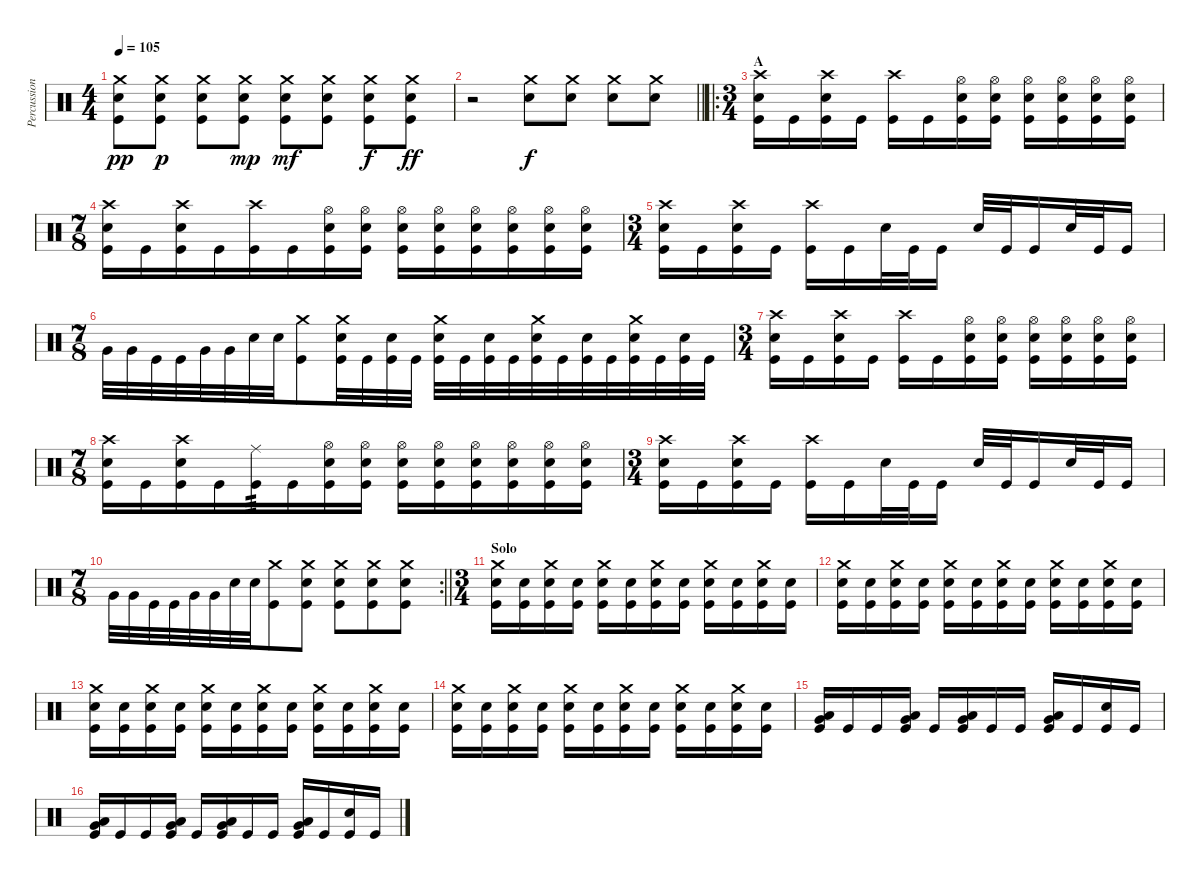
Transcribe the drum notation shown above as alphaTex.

\track ("Percussion" "Percussion") {instrument percussion}
\staff {score}
\articulation defaults
\ts (4 4)
\tempo 105
\clef neutral
\ks c
("Kick (hit)" "Snare (hit) 2" "Crash medium (hit)").8{dy pp} ("Kick (hit)" "Snare (hit) 2" "Crash medium (hit)").8{dy p} ("Kick (hit)" "Snare (hit) 2" "Crash medium (hit)").8 ("Kick (hit)" "Snare (hit) 2" "Crash medium (hit)").8{dy mp} ("Kick (hit)" "Snare (hit) 2" "Crash medium (hit)").8{dy mf} ("Kick (hit)" "Snare (hit) 2" "Crash medium (hit)").8 ("Kick (hit)" "Snare (hit) 2" "Crash medium (hit)").8{dy f} ("Kick (hit)" "Snare (hit) 2" "Crash medium (hit)").8{dy ff} |
\barLineRight lightlight
r.2 ("Snare (hit) 2" "Crash medium (hit)").8{dy f} ("Snare (hit) 2" "Crash medium (hit)").8 ("Snare (hit) 2" "Crash medium (hit)").8 ("Snare (hit) 2" "Crash medium (hit)").8 |
\ro
\ts (3 4)
\section ("" "A")
("Kick (hit)" "Snare (hit) 2" "Crash high (hit)").16 "Kick (hit)".16 ("Kick (hit)" "Snare (hit) 2" "Crash high (hit)").16 "Kick (hit)".16 ("Kick (hit)" "Crash high (hit)").16 "Kick (hit)".16 ("Kick (hit)" "Hi-Hat (open)" "Snare (hit) 2").16 ("Kick (hit)" "Hi-Hat (open)" "Snare (hit) 2").16 ("Kick (hit)" "Hi-Hat (open)" "Snare (hit) 2").16 ("Kick (hit)" "Hi-Hat (open)" "Snare (hit) 2").16 ("Kick (hit)" "Hi-Hat (open)" "Snare (hit) 2").16 ("Kick (hit)" "Hi-Hat (open)" "Snare (hit) 2").16 |
\ts (7 8)
("Kick (hit)" "Snare (hit) 2" "Crash high (hit)").16 "Kick (hit)".16 ("Kick (hit)" "Snare (hit) 2" "Crash high (hit)").16 "Kick (hit)".16 ("Kick (hit)" "Crash high (hit)").16 "Kick (hit)".16 ("Kick (hit)" "Hi-Hat (open)" "Snare (hit) 2").16 ("Kick (hit)" "Hi-Hat (open)" "Snare (hit) 2").16 ("Kick (hit)" "Hi-Hat (open)" "Snare (hit) 2").16 ("Kick (hit)" "Hi-Hat (open)" "Snare (hit) 2").16 ("Kick (hit)" "Hi-Hat (open)" "Snare (hit) 2").16 ("Kick (hit)" "Hi-Hat (open)" "Snare (hit) 2").16 ("Kick (hit)" "Hi-Hat (open)" "Snare (hit) 2").16 ("Kick (hit)" "Hi-Hat (open)" "Snare (hit) 2").16 |
\ts (3 4)
("Kick (hit)" "Snare (hit) 2" "Crash high (hit)").16 "Kick (hit)".16 ("Kick (hit)" "Snare (hit) 2" "Crash high (hit)").16 "Kick (hit)".16 ("Kick (hit)" "Crash high (hit)").16 "Kick (hit)".16 "Snare (hit) 2".32 "Kick (hit)".32 "Kick (hit)".16 "Snare (hit) 2".32 "Kick (hit)".32 "Kick (hit)".16 "Snare (hit) 2".32 "Kick (hit)".32 "Kick (hit)".16 |
\ts (7 8)
"Very Low Tom (hit)".32 "Very Low Tom (hit)".32 "Kick (hit)".32 "Kick (hit)".32 "Very Low Tom (hit)".32 "Very Low Tom (hit)".32 "Snare (hit) 2".32 "Snare (hit) 2".32 ("Kick (hit)" "Crash medium (hit)").8 ("Kick (hit)" "Crash medium (hit)" "Snare (hit) 2").32 "Kick (hit)".32 ("Kick (hit)" "Snare (hit) 2").32 "Kick (hit)".32 ("Kick (hit)" "Crash medium (hit)" "Snare (hit) 2").32 "Kick (hit)".32 ("Kick (hit)" "Snare (hit) 2").32 "Kick (hit)".32 ("Kick (hit)" "Crash medium (hit)" "Snare (hit) 2").32 "Kick (hit)".32 ("Kick (hit)" "Snare (hit) 2").32 "Kick (hit)".32 ("Kick (hit)" "Crash medium (hit)" "Snare (hit) 2").32 "Kick (hit)".32 ("Kick (hit)" "Snare (hit) 2").32 "Kick (hit)".32 |
\ts (3 4)
("Kick (hit)" "Snare (hit) 2" "Crash high (hit)").16 "Kick (hit)".16 ("Kick (hit)" "Snare (hit) 2" "Crash high (hit)").16 "Kick (hit)".16 ("Kick (hit)" "Crash high (hit)").16 "Kick (hit)".16 ("Kick (hit)" "Hi-Hat (open)" "Snare (hit) 2").16 ("Kick (hit)" "Hi-Hat (open)" "Snare (hit) 2").16 ("Kick (hit)" "Hi-Hat (open)" "Snare (hit) 2").16 ("Kick (hit)" "Hi-Hat (open)" "Snare (hit) 2").16 ("Kick (hit)" "Hi-Hat (open)" "Snare (hit) 2").16 ("Kick (hit)" "Hi-Hat (open)" "Snare (hit) 2").16 |
\ts (7 8)
("Kick (hit)" "Snare (hit) 2" "Crash high (hit)").16 "Kick (hit)".16 ("Kick (hit)" "Snare (hit) 2" "Crash high (hit)").16 "Kick (hit)".16 ("Kick (hit)" "Ride (middle)").16{tp 3} "Kick (hit)".16 ("Kick (hit)" "Hi-Hat (open)" "Snare (hit) 2").16 ("Kick (hit)" "Hi-Hat (open)" "Snare (hit) 2").16 ("Kick (hit)" "Hi-Hat (open)" "Snare (hit) 2").16 ("Kick (hit)" "Hi-Hat (open)" "Snare (hit) 2").16 ("Kick (hit)" "Hi-Hat (open)" "Snare (hit) 2").16 ("Kick (hit)" "Hi-Hat (open)" "Snare (hit) 2").16 ("Kick (hit)" "Hi-Hat (open)" "Snare (hit) 2").16 ("Kick (hit)" "Hi-Hat (open)" "Snare (hit) 2").16 |
\ts (3 4)
("Kick (hit)" "Snare (hit) 2" "Crash high (hit)").16 "Kick (hit)".16 ("Kick (hit)" "Snare (hit) 2" "Crash high (hit)").16 "Kick (hit)".16 ("Kick (hit)" "Crash high (hit)").16 "Kick (hit)".16 "Snare (hit) 2".32 "Kick (hit)".32 "Kick (hit)".16 "Snare (hit) 2".32 "Kick (hit)".32 "Kick (hit)".16 "Snare (hit) 2".32 "Kick (hit)".32 "Kick (hit)".16 |
\rc 2
\ts (7 8)
\barLineRight lightlight "Very Low Tom (hit)".32 "Very Low Tom (hit)".32 "Kick (hit)".32 "Kick (hit)".32 "Very Low Tom (hit)".32 "Very Low Tom (hit)".32 "Snare (hit) 2".32 "Snare (hit) 2".32
("Kick (hit)" "Crash medium (hit)").8 ("Kick (hit)" "Snare (hit) 2" "Crash medium (hit)").8 ("Kick (hit)" "Snare (hit) 2" "Crash medium (hit)").8 ("Kick (hit)" "Snare (hit) 2" "Crash medium (hit)").8 ("Kick (hit)" "Snare (hit) 2" "Crash medium (hit)").8 |
\ts (3 4)
\section ("" "Solo")
("Kick (hit)" "Crash medium (hit)" "Snare (hit) 2").16 ("Kick (hit)" "Snare (hit) 2").16 ("Kick (hit)" "Crash medium (hit)" "Snare (hit) 2").16 ("Kick (hit)" "Snare (hit) 2").16 ("Kick (hit)" "Crash medium (hit)" "Snare (hit) 2").16 ("Kick (hit)" "Snare (hit) 2").16 ("Kick (hit)" "Crash medium (hit)" "Snare (hit) 2").16 ("Kick (hit)" "Snare (hit) 2").16 ("Kick (hit)" "Crash medium (hit)" "Snare (hit) 2").16 ("Kick (hit)" "Snare (hit) 2").16 ("Kick (hit)" "Crash medium (hit)" "Snare (hit) 2").16 ("Kick (hit)" "Snare (hit) 2").16 |
("Kick (hit)" "Crash medium (hit)" "Snare (hit) 2").16 ("Kick (hit)" "Snare (hit) 2").16 ("Kick (hit)" "Crash medium (hit)" "Snare (hit) 2").16 ("Kick (hit)" "Snare (hit) 2").16 ("Kick (hit)" "Crash medium (hit)" "Snare (hit) 2").16 ("Kick (hit)" "Snare (hit) 2").16 ("Kick (hit)" "Crash medium (hit)" "Snare (hit) 2").16 ("Kick (hit)" "Snare (hit) 2").16 ("Kick (hit)" "Crash medium (hit)" "Snare (hit) 2").16 ("Kick (hit)" "Snare (hit) 2").16 ("Kick (hit)" "Crash medium (hit)" "Snare (hit) 2").16 ("Kick (hit)" "Snare (hit) 2").16 |
("Kick (hit)" "Crash medium (hit)" "Snare (hit) 2").16 ("Kick (hit)" "Snare (hit) 2").16 ("Kick (hit)" "Crash medium (hit)" "Snare (hit) 2").16 ("Kick (hit)" "Snare (hit) 2").16 ("Kick (hit)" "Crash medium (hit)" "Snare (hit) 2").16 ("Kick (hit)" "Snare (hit) 2").16 ("Kick (hit)" "Crash medium (hit)" "Snare (hit) 2").16 ("Kick (hit)" "Snare (hit) 2").16 ("Kick (hit)" "Crash medium (hit)" "Snare (hit) 2").16 ("Kick (hit)" "Snare (hit) 2").16 ("Kick (hit)" "Crash medium (hit)" "Snare (hit) 2").16 ("Kick (hit)" "Snare (hit) 2").16 |
("Kick (hit)" "Crash medium (hit)" "Snare (hit) 2").16 ("Kick (hit)" "Snare (hit) 2").16 ("Kick (hit)" "Crash medium (hit)" "Snare (hit) 2").16 ("Kick (hit)" "Snare (hit) 2").16 ("Kick (hit)" "Crash medium (hit)" "Snare (hit) 2").16 ("Kick (hit)" "Snare (hit) 2").16 ("Kick (hit)" "Crash medium (hit)" "Snare (hit) 2").16 ("Kick (hit)" "Snare (hit) 2").16 ("Kick (hit)" "Crash medium (hit)" "Snare (hit) 2").16 ("Kick (hit)" "Snare (hit) 2").16 ("Kick (hit)" "Crash medium (hit)" "Snare (hit) 2").16 ("Kick (hit)" "Snare (hit) 2").16 |
("Kick (hit)" "Low Floor Tom (hit)" "Very Low Tom (hit)").16 "Kick (hit)".16 "Kick (hit)".16 ("Kick (hit)" "Low Floor Tom (hit)" "Very Low Tom (hit)").16 "Kick (hit)".16 ("Kick (hit)" "Low Floor Tom (hit)" "Very Low Tom (hit)").16 "Kick (hit)".16 "Kick (hit)".16 ("Kick (hit)" "Low Floor Tom (hit)" "Very Low Tom (hit)").16 "Kick (hit)".16 ("Kick (hit)" "Snare (hit) 2").16 "Kick (hit)".16 |
("Kick (hit)" "Low Floor Tom (hit)" "Very Low Tom (hit)").16 "Kick (hit)".16 "Kick (hit)".16 ("Kick (hit)" "Low Floor Tom (hit)" "Very Low Tom (hit)").16 "Kick (hit)".16 ("Kick (hit)" "Low Floor Tom (hit)" "Very Low Tom (hit)").16 "Kick (hit)".16 "Kick (hit)".16 ("Kick (hit)" "Low Floor Tom (hit)" "Very Low Tom (hit)").16 "Kick (hit)".16 ("Kick (hit)" "Snare (hit) 2").16 "Kick (hit)".16
